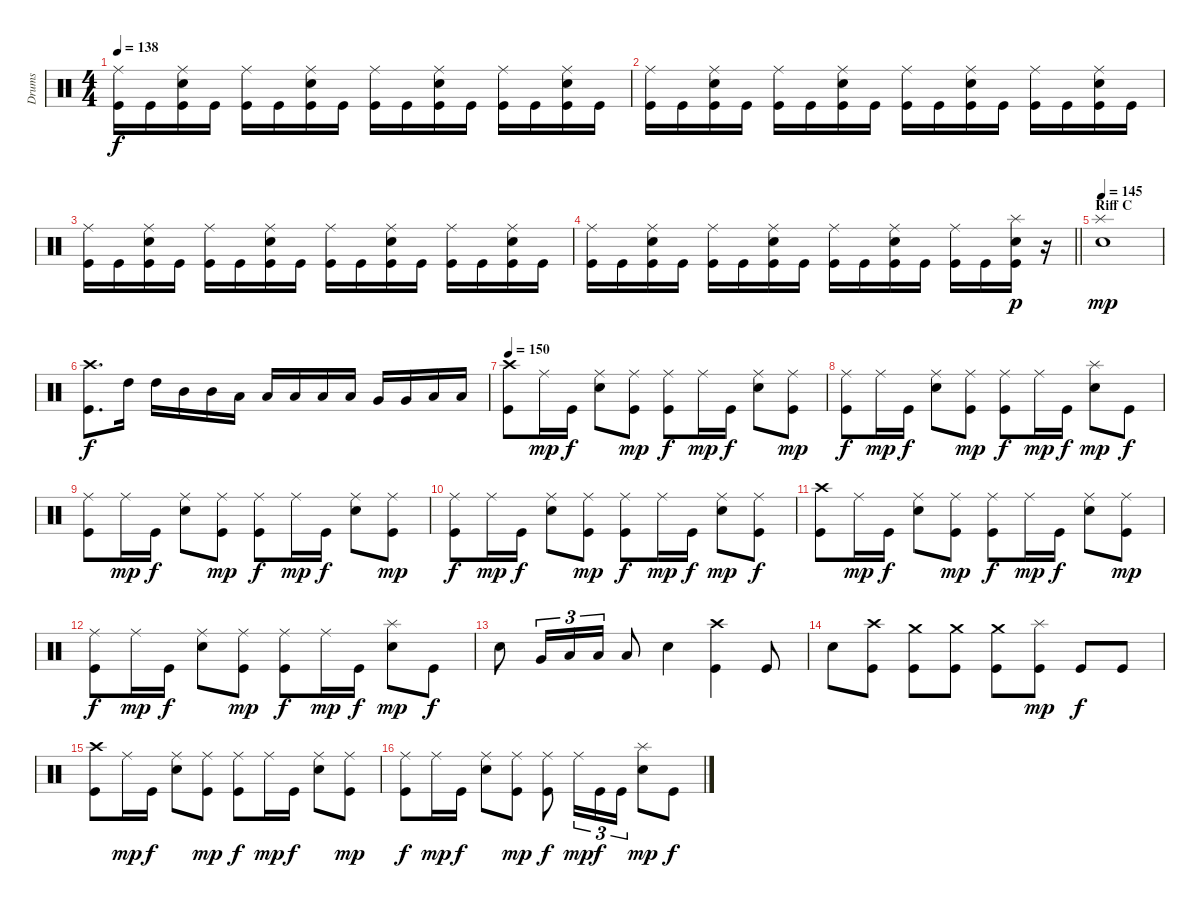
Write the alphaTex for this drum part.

\track ("Drums" "Drums") {instrument percussion}
\staff {score}
\articulation defaults
\ts (4 4)
\tempo 138
\clef neutral
\ks c
("Ride (middle)" "Kick (hit)").16{dy f} "Kick (hit)".16 ("Ride (middle)" "Electric Snare (hit)" "Kick (hit)").16 "Kick (hit)".16 ("Ride (middle)" "Kick (hit)").16 "Kick (hit)".16 ("Ride (middle)" "Electric Snare (hit)" "Kick (hit)").16 "Kick (hit)".16 ("Ride (middle)" "Kick (hit)").16 "Kick (hit)".16 ("Ride (middle)" "Electric Snare (hit)" "Kick (hit)").16 "Kick (hit)".16 ("Ride (middle)" "Kick (hit)").16 "Kick (hit)".16 ("Ride (middle)" "Electric Snare (hit)" "Kick (hit)").16 "Kick (hit)".16 |
("Ride (middle)" "Kick (hit)").16 "Kick (hit)".16 ("Ride (middle)" "Electric Snare (hit)" "Kick (hit)").16 "Kick (hit)".16 ("Ride (middle)" "Kick (hit)").16 "Kick (hit)".16 ("Ride (middle)" "Electric Snare (hit)" "Kick (hit)").16 "Kick (hit)".16 ("Ride (middle)" "Kick (hit)").16 "Kick (hit)".16 ("Ride (middle)" "Electric Snare (hit)" "Kick (hit)").16 "Kick (hit)".16 ("Ride (middle)" "Kick (hit)").16 "Kick (hit)".16 ("Ride (middle)" "Electric Snare (hit)" "Kick (hit)").16 "Kick (hit)".16 |
("Ride (middle)" "Kick (hit)").16 "Kick (hit)".16 ("Ride (middle)" "Electric Snare (hit)" "Kick (hit)").16 "Kick (hit)".16 ("Ride (middle)" "Kick (hit)").16 "Kick (hit)".16 ("Ride (middle)" "Electric Snare (hit)" "Kick (hit)").16 "Kick (hit)".16 ("Ride (middle)" "Kick (hit)").16 "Kick (hit)".16 ("Ride (middle)" "Electric Snare (hit)" "Kick (hit)").16 "Kick (hit)".16 ("Ride (middle)" "Kick (hit)").16 "Kick (hit)".16 ("Ride (middle)" "Electric Snare (hit)" "Kick (hit)").16 "Kick (hit)".16 |
\barLineRight lightlight
("Ride (middle)" "Kick (hit)").16 "Kick (hit)".16 ("Ride (middle)" "Electric Snare (hit)" "Kick (hit)").16 "Kick (hit)".16 ("Ride (middle)" "Kick (hit)").16 "Kick (hit)".16 ("Ride (middle)" "Electric Snare (hit)" "Kick (hit)").16 "Kick (hit)".16 ("Ride (middle)" "Kick (hit)").16 "Kick (hit)".16 ("Ride (middle)" "Electric Snare (hit)" "Kick (hit)").16 "Kick (hit)".16 ("Ride (middle)" "Kick (hit)").16 "Kick (hit)".16 ("Splash (hit)" "Electric Snare (hit)" "Kick (hit)").16{dy p} r.16 |
\section ("" "Riff C")
\tempo 145
("Splash (hit)" "Electric Snare (hit)").1{dy mp} |
("Crash high (hit)" "Kick (hit)").8{d dy f} "High Tom (hit)".16 "High Tom (hit)".16 "Mid Tom (hit)".16 "Mid Tom (hit)".16 "Low Tom (hit)".16 "Low Tom (hit)".16 "Low Tom (hit)".16 "Low Tom (hit)".16 "Low Tom (hit)".16 "Very Low Tom (hit)".16 "Very Low Tom (hit)".16 "Low Floor Tom (hit)".16 "Low Floor Tom (hit)".16 |
\tempo 150
("Crash high (hit)" "Kick (hit)").8 "Ride (middle)".16{dy mp} "Kick (hit)".16{dy f} ("Ride (middle)" "Electric Snare (hit)").8 ("Ride (middle)" "Kick (hit)").8{dy mp} ("Ride (middle)" "Kick (hit)").8{dy f} "Ride (middle)".16{dy mp} "Kick (hit)".16{dy f} ("Ride (middle)" "Electric Snare (hit)").8 ("Ride (middle)" "Kick (hit)").8{dy mp} |
("Ride (middle)" "Kick (hit)").8{dy f} "Ride (middle)".16{dy mp} "Kick (hit)".16{dy f} ("Ride (middle)" "Electric Snare (hit)").8 ("Ride (middle)" "Kick (hit)").8{dy mp} ("Ride (middle)" "Kick (hit)").8{dy f} "Ride (middle)".16{dy mp} "Kick (hit)".16{dy f} ("Splash (hit)" "Electric Snare (hit)").8{dy mp} "Kick (hit)".8{dy f} |
("Ride (middle)" "Kick (hit)").8 "Ride (middle)".16{dy mp} "Kick (hit)".16{dy f} ("Ride (middle)" "Electric Snare (hit)").8 ("Ride (middle)" "Kick (hit)").8{dy mp} ("Ride (middle)" "Kick (hit)").8{dy f} "Ride (middle)".16{dy mp} "Kick (hit)".16{dy f} ("Ride (middle)" "Electric Snare (hit)").8 ("Ride (middle)" "Kick (hit)").8{dy mp} |
("Ride (middle)" "Kick (hit)").8{dy f} "Ride (middle)".16{dy mp} "Kick (hit)".16{dy f} ("Ride (middle)" "Electric Snare (hit)").8 ("Ride (middle)" "Kick (hit)").8{dy mp} ("Ride (middle)" "Kick (hit)").8{dy f} "Ride (middle)".16{dy mp} "Kick (hit)".16{dy f} ("Ride (middle)" "Electric Snare (hit)").8{dy mp} ("Ride (middle)" "Kick (hit)").8{dy f} |
("Crash high (hit)" "Kick (hit)").8 "Ride (middle)".16{dy mp} "Kick (hit)".16{dy f} ("Ride (middle)" "Electric Snare (hit)").8 ("Ride (middle)" "Kick (hit)").8{dy mp} ("Ride (middle)" "Kick (hit)").8{dy f} "Ride (middle)".16{dy mp} "Kick (hit)".16{dy f} ("Ride (middle)" "Electric Snare (hit)").8 ("Ride (middle)" "Kick (hit)").8{dy mp} |
("Ride (middle)" "Kick (hit)").8{dy f} "Ride (middle)".16{dy mp} "Kick (hit)".16{dy f} ("Ride (middle)" "Electric Snare (hit)").8 ("Ride (middle)" "Kick (hit)").8{dy mp} ("Ride (middle)" "Kick (hit)").8{dy f} "Ride (middle)".16{dy mp} "Kick (hit)".16{dy f} ("Splash (hit)" "Electric Snare (hit)").8{dy mp} "Kick (hit)".8{dy f} |
"Electric Snare (hit)".8 "Very Low Tom (hit)".16{tu (3 2)} "Low Floor Tom (hit)".16{tu (3 2)} "Low Floor Tom (hit)".16{tu (3 2)} "Low Floor Tom (hit)".8 "Electric Snare (hit)".4 ("Crash high (hit)" "Kick (hit)").4 "Kick (hit)".8 |
"Electric Snare (hit)".8 ("Crash high (hit)" "Kick (hit)").8 ("Crash medium (hit)" "Kick (hit)").8 ("Crash medium (hit)" "Kick (hit)").8 ("Crash medium (hit)" "Kick (hit)").8 ("Splash (hit)" "Kick (hit)").8{dy mp} "Kick (hit)".8{dy f} "Kick (hit)".8 |
("Crash high (hit)" "Kick (hit)").8 "Ride (middle)".16{dy mp} "Kick (hit)".16{dy f} ("Ride (middle)" "Electric Snare (hit)").8 ("Ride (middle)" "Kick (hit)").8{dy mp} ("Ride (middle)" "Kick (hit)").8{dy f} "Ride (middle)".16{dy mp} "Kick (hit)".16{dy f} ("Ride (middle)" "Electric Snare (hit)").8 ("Ride (middle)" "Kick (hit)").8{dy mp} |
("Ride (middle)" "Kick (hit)").8{dy f} "Ride (middle)".16{dy mp} "Kick (hit)".16{dy f} ("Ride (middle)" "Electric Snare (hit)").8 ("Ride (middle)" "Kick (hit)").8{dy mp} ("Ride (middle)" "Kick (hit)").8{dy f} "Ride (middle)".16{tu (3 2) dy mp} "Kick (hit)".16{tu (3 2) dy f} "Kick (hit)".16{tu (3 2)} ("Splash (hit)" "Electric Snare (hit)").8{dy mp} "Kick (hit)".8{dy f}
